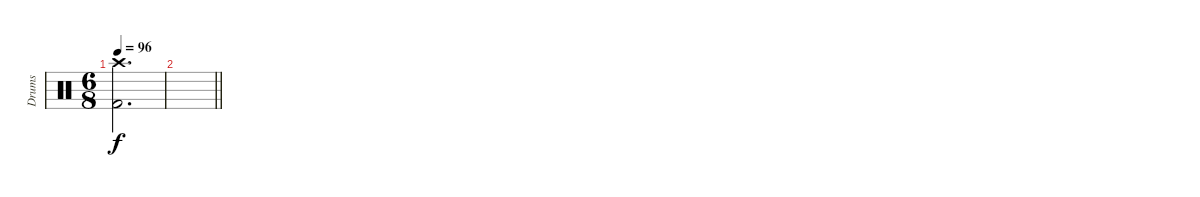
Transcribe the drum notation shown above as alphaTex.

\track ("Drums" "Drums") {instrument percussion}
\staff {score}
\articulation defaults
\ts (6 8)
\tempo 96
\clef neutral
\ks c
("Crash high (hit)" "Kick (hit) 2").2{d dy f} |
\barLineRight lightlight
